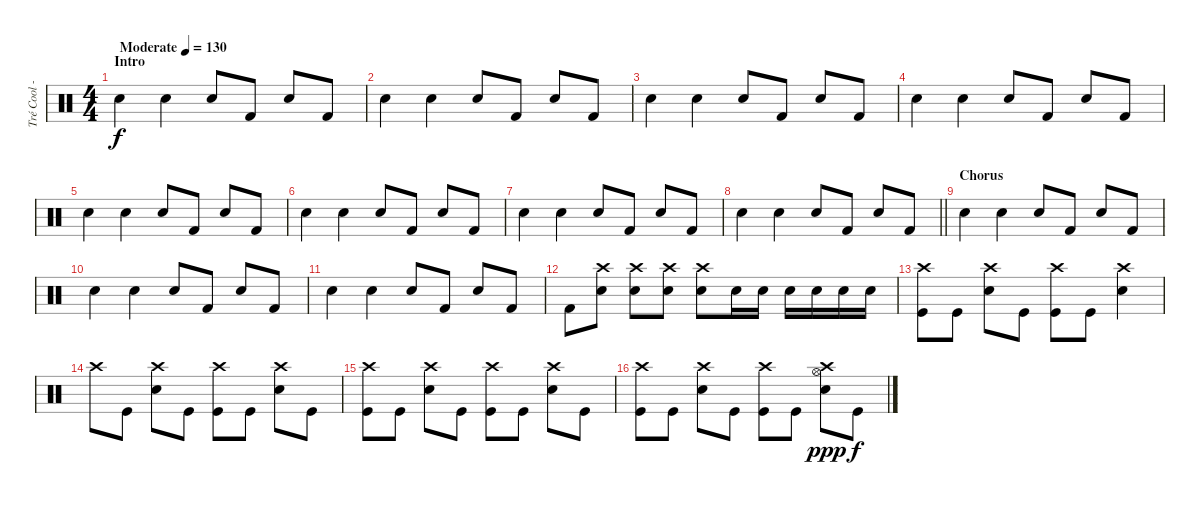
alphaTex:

\track ("Tré Cool - Drums" "Tré Cool -") {instrument percussion}
\staff {score}
\articulation defaults
\ts (4 4)
\section ("" "Intro")
\tempo (130 "Moderate")
\clef neutral
\ks c "Snare (hit) 2".4{dy f} "Snare (hit) 2".4 "Snare (hit) 2".8 "Kick (hit) 2".8 "Snare (hit) 2".8 "Kick (hit) 2".8
|
"Snare (hit) 2".4 "Snare (hit) 2".4 "Snare (hit) 2".8 "Kick (hit) 2".8 "Snare (hit) 2".8 "Kick (hit) 2".8 |
"Snare (hit) 2".4 "Snare (hit) 2".4 "Snare (hit) 2".8 "Kick (hit) 2".8 "Snare (hit) 2".8 "Kick (hit) 2".8 |
"Snare (hit) 2".4 "Snare (hit) 2".4 "Snare (hit) 2".8 "Kick (hit) 2".8 "Snare (hit) 2".8 "Kick (hit) 2".8 |
"Snare (hit) 2".4 "Snare (hit) 2".4 "Snare (hit) 2".8 "Kick (hit) 2".8 "Snare (hit) 2".8 "Kick (hit) 2".8 |
"Snare (hit) 2".4 "Snare (hit) 2".4 "Snare (hit) 2".8 "Kick (hit) 2".8 "Snare (hit) 2".8 "Kick (hit) 2".8 |
"Snare (hit) 2".4 "Snare (hit) 2".4 "Snare (hit) 2".8 "Kick (hit) 2".8 "Snare (hit) 2".8 "Kick (hit) 2".8 |
\barLineRight lightlight "Snare (hit) 2".4 "Snare (hit) 2".4 "Snare (hit) 2".8 "Kick (hit) 2".8 "Snare (hit) 2".8 "Kick (hit) 2".8
|
\section ("" "Chorus")
"Snare (hit) 2".4 "Snare (hit) 2".4 "Snare (hit) 2".8 "Kick (hit) 2".8 "Snare (hit) 2".8 "Kick (hit) 2".8 |
"Snare (hit) 2".4 "Snare (hit) 2".4 "Snare (hit) 2".8 "Kick (hit) 2".8 "Snare (hit) 2".8 "Kick (hit) 2".8 |
"Snare (hit) 2".4 "Snare (hit) 2".4 "Snare (hit) 2".8 "Kick (hit) 2".8 "Snare (hit) 2".8 "Kick (hit) 2".8 |
"Kick (hit) 2".8 ("Crash high (hit)" "Snare (hit) 2").8 ("Crash high (hit)" "Snare (hit) 2").8 ("Crash high (hit)" "Snare (hit) 2").8 ("Crash high (hit)" "Snare (hit) 2").8 "Snare (hit) 2".16 "Snare (hit) 2".16 "Snare (hit) 2".16 "Snare (hit) 2".16 "Snare (hit) 2".16 "Snare (hit) 2".16 |
("Kick (hit)" "Crash high (hit)").8 "Kick (hit)".8 ("Snare (hit) 2" "Crash high (hit)").8 "Kick (hit)".8 ("Kick (hit)" "Crash high (hit)").8 "Kick (hit)".8 ("Snare (hit) 2" "Crash high (hit)").4 |
"Crash high (hit)".8 "Kick (hit)".8 ("Snare (hit) 2" "Crash high (hit)").8 "Kick (hit)".8 ("Kick (hit)" "Crash high (hit)").8 "Kick (hit)".8 ("Snare (hit) 2" "Crash high (hit)").8 "Kick (hit)".8 |
("Kick (hit)" "Crash high (hit)").8 "Kick (hit)".8 ("Snare (hit) 2" "Crash high (hit)").8 "Kick (hit)".8 ("Kick (hit)" "Crash high (hit)").8 "Kick (hit)".8 ("Snare (hit) 2" "Crash high (hit)").8 "Kick (hit)".8 |
("Kick (hit)" "Crash high (hit)").8 "Kick (hit)".8 ("Snare (hit) 2" "Crash high (hit)").8 "Kick (hit)".8 ("Kick (hit)" "Crash high (hit)").8 "Kick (hit)".8 ("Snare (hit) 2" "Crash high (hit)" "Hi-Hat (open)").8{dy ppp} "Kick (hit)".8{dy f}
